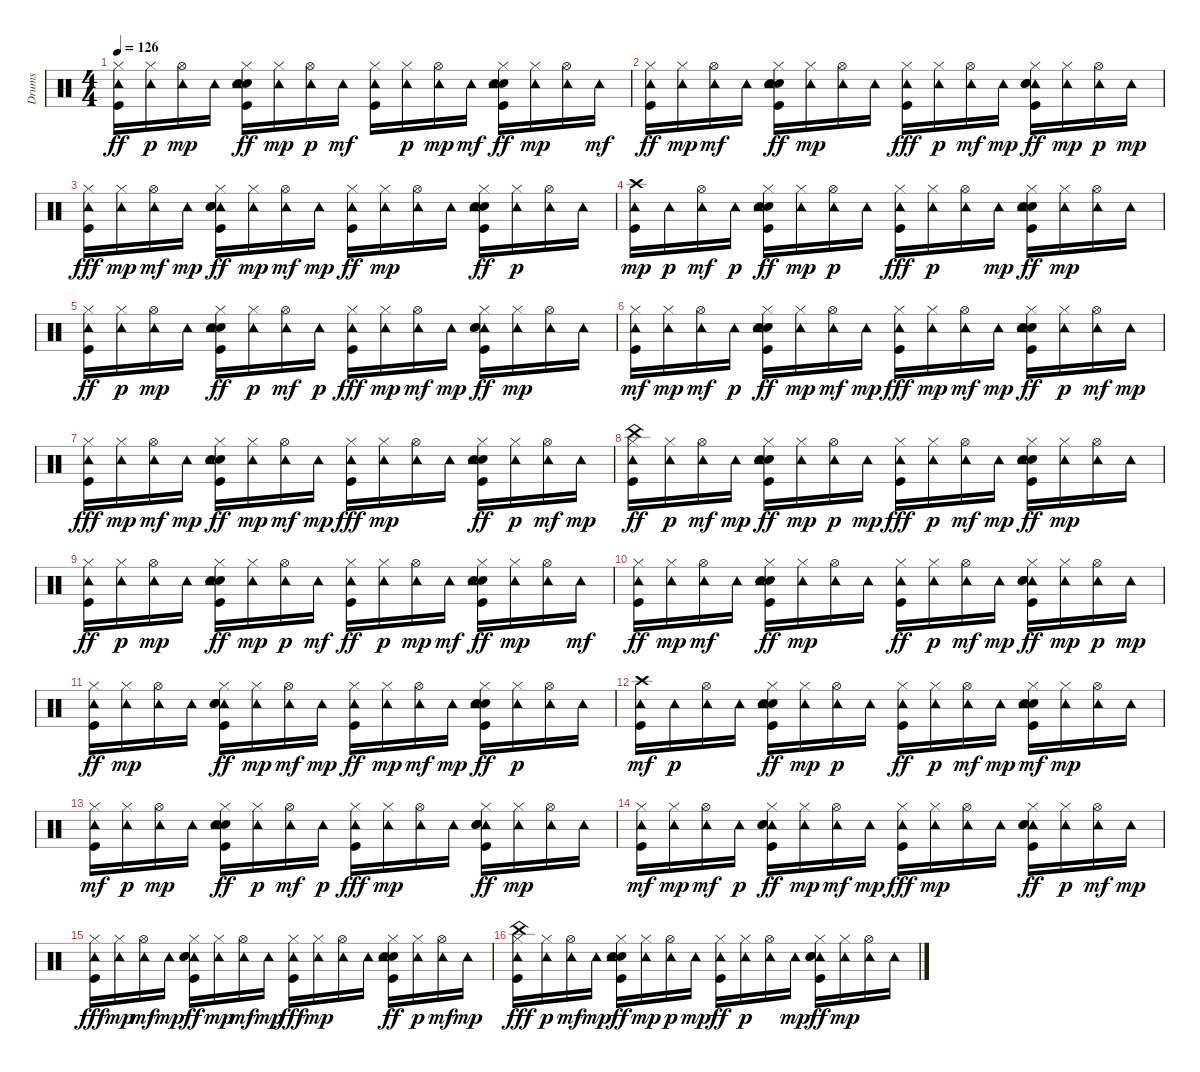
\track ("Drums" "Drums") {instrument percussion}
\staff {score}
\articulation defaults
\ts (4 4)
\tempo 126
\clef neutral
\ks c
("Kick (hit)" "Tambourine (hit)" "Hi-Hat (closed)").16{dy ff} ("Hi-Hat (closed)" "Tambourine (hit)").16{dy p} ("Hi-Hat (open)" "Tambourine (hit)").16{dy mp} "Tambourine (hit)".16 ("Hand Clap (hit)" "Kick (hit)" "Snare (hit) 2" "Tambourine (hit)" "Hi-Hat (closed)").16{dy ff} ("Hi-Hat (closed)" "Tambourine (hit)").16{dy mp} ("Hi-Hat (open)" "Tambourine (hit)").16{dy p} "Tambourine (hit)".16{dy mf} ("Kick (hit)" "Hi-Hat (closed)" "Tambourine (hit)").16 ("Tambourine (hit)" "Hi-Hat (closed)").16{dy p} ("Hi-Hat (open)" "Tambourine (hit)").16{dy mp} "Tambourine (hit)".16{dy mf} ("Kick (hit)" "Snare (hit) 2" "Tambourine (hit)" "Hand Clap (hit)" "Hi-Hat (closed)").16{dy ff} ("Tambourine (hit)" "Hi-Hat (closed)").16{dy mp} ("Hi-Hat (open)" "Tambourine (hit)").16 "Tambourine (hit)".16{dy mf} |
("Kick (hit)" "Tambourine (hit)" "Hi-Hat (closed)").16{dy ff} ("Tambourine (hit)" "Hi-Hat (closed)").16{dy mp} ("Tambourine (hit)" "Hi-Hat (open)").16{dy mf} "Tambourine (hit)".16 ("Hand Clap (hit)" "Tambourine (hit)" "Kick (hit)" "Snare (hit) 2" "Hi-Hat (closed)").16{dy ff} ("Tambourine (hit)" "Hi-Hat (closed)").16{dy mp} ("Hi-Hat (open)" "Tambourine (hit)").16 "Tambourine (hit)".16 ("Tambourine (hit)" "Hi-Hat (closed)" "Kick (hit)").16{dy fff} ("Tambourine (hit)" "Hi-Hat (closed)").16{dy p} ("Tambourine (hit)" "Hi-Hat (open)").16{dy mf} "Tambourine (hit)".16{dy mp} ("Tambourine (hit)" "Hi-Hat (closed)" "Hand Clap (hit)" "Kick (hit)" "Snare (hit) 2").16{dy ff} ("Tambourine (hit)" "Hi-Hat (closed)").16{dy mp} ("Hi-Hat (open)" "Tambourine (hit)").16{dy p} "Tambourine (hit)".16{dy mp} |
("Tambourine (hit)" "Hi-Hat (closed)" "Kick (hit)").16{dy fff} ("Tambourine (hit)" "Hi-Hat (closed)").16{dy mp} ("Tambourine (hit)" "Hi-Hat (open)").16{dy mf} "Tambourine (hit)".16{dy mp} ("Tambourine (hit)" "Hi-Hat (closed)" "Kick (hit)" "Snare (hit) 2" "Hand Clap (hit)").16{dy ff} ("Tambourine (hit)" "Hi-Hat (closed)").16{dy mp} ("Tambourine (hit)" "Hi-Hat (open)").16{dy mf} "Tambourine (hit)".16{dy mp} ("Kick (hit)" "Tambourine (hit)" "Hi-Hat (closed)").16{dy ff} ("Hi-Hat (closed)" "Tambourine (hit)").16{dy mp} ("Hi-Hat (open)" "Tambourine (hit)").16 "Tambourine (hit)".16 ("Snare (hit) 2" "Hand Clap (hit)" "Kick (hit)" "Tambourine (hit)" "Hi-Hat (closed)").16{dy ff} ("Hi-Hat (closed)" "Tambourine (hit)").16{dy p} ("Hi-Hat (open)" "Tambourine (hit)").16 "Tambourine (hit)".16 |
("Tambourine (hit)" "Kick (hit)" "Crash high (hit)").16{dy mp} "Tambourine (hit)".16{dy p} ("Tambourine (hit)" "Hi-Hat (open)").16{dy mf} "Tambourine (hit)".16{dy p} ("Hand Clap (hit)" "Tambourine (hit)" "Kick (hit)" "Snare (hit) 2" "Hi-Hat (closed)").16{dy ff} ("Tambourine (hit)" "Hi-Hat (closed)").16{dy mp} ("Hi-Hat (open)" "Tambourine (hit)").16{dy p} "Tambourine (hit)".16 ("Tambourine (hit)" "Hi-Hat (closed)" "Kick (hit)").16{dy fff} ("Hi-Hat (closed)" "Tambourine (hit)").16{dy p} ("Hi-Hat (open)" "Tambourine (hit)").16 "Tambourine (hit)".16{dy mp} ("Hand Clap (hit)" "Tambourine (hit)" "Kick (hit)" "Snare (hit) 2" "Hi-Hat (closed)").16{dy ff} ("Hi-Hat (closed)" "Tambourine (hit)").16{dy mp} ("Hi-Hat (open)" "Tambourine (hit)").16 "Tambourine (hit)".16 |
("Kick (hit)" "Tambourine (hit)" "Hi-Hat (closed)").16{dy ff} ("Hi-Hat (closed)" "Tambourine (hit)").16{dy p} ("Hi-Hat (open)" "Tambourine (hit)").16{dy mp} "Tambourine (hit)".16 ("Hand Clap (hit)" "Tambourine (hit)" "Kick (hit)" "Snare (hit) 2" "Hi-Hat (closed)").16{dy ff} ("Tambourine (hit)" "Hi-Hat (closed)").16{dy p} ("Tambourine (hit)" "Hi-Hat (open)").16{dy mf} "Tambourine (hit)".16{dy p} ("Tambourine (hit)" "Hi-Hat (closed)" "Kick (hit)").16{dy fff} ("Tambourine (hit)" "Hi-Hat (closed)").16{dy mp} ("Tambourine (hit)" "Hi-Hat (open)").16{dy mf} "Tambourine (hit)".16{dy mp} ("Tambourine (hit)" "Hi-Hat (closed)" "Kick (hit)" "Snare (hit) 2" "Hand Clap (hit)").16{dy ff} ("Tambourine (hit)" "Hi-Hat (closed)").16{dy mp} ("Hi-Hat (open)" "Tambourine (hit)").16 "Tambourine (hit)".16 |
("Hi-Hat (closed)" "Kick (hit)" "Tambourine (hit)").16{dy mf} ("Tambourine (hit)" "Hi-Hat (closed)").16{dy mp} ("Tambourine (hit)" "Hi-Hat (open)").16{dy mf} "Tambourine (hit)".16{dy p} ("Hand Clap (hit)" "Tambourine (hit)" "Hi-Hat (closed)" "Kick (hit)" "Snare (hit) 2").16{dy ff} ("Tambourine (hit)" "Hi-Hat (closed)").16{dy mp} ("Tambourine (hit)" "Hi-Hat (open)").16{dy mf} "Tambourine (hit)".16{dy mp} ("Tambourine (hit)" "Hi-Hat (closed)" "Kick (hit)").16{dy fff} ("Tambourine (hit)" "Hi-Hat (closed)").16{dy mp} ("Tambourine (hit)" "Hi-Hat (open)").16{dy mf} "Tambourine (hit)".16{dy mp} ("Hand Clap (hit)" "Tambourine (hit)" "Hi-Hat (closed)" "Kick (hit)" "Snare (hit) 2").16{dy ff} ("Tambourine (hit)" "Hi-Hat (closed)").16{dy p} ("Tambourine (hit)" "Hi-Hat (open)").16{dy mf} "Tambourine (hit)".16{dy mp} |
("Tambourine (hit)" "Hi-Hat (closed)" "Kick (hit)").16{dy fff} ("Tambourine (hit)" "Hi-Hat (closed)").16{dy mp} ("Tambourine (hit)" "Hi-Hat (open)").16{dy mf} "Tambourine (hit)".16{dy mp} ("Hand Clap (hit)" "Tambourine (hit)" "Hi-Hat (closed)" "Kick (hit)" "Snare (hit) 2").16{dy ff} ("Tambourine (hit)" "Hi-Hat (closed)").16{dy mp} ("Tambourine (hit)" "Hi-Hat (open)").16{dy mf} "Tambourine (hit)".16{dy mp} ("Tambourine (hit)" "Hi-Hat (closed)" "Kick (hit)").16{dy fff} ("Tambourine (hit)" "Hi-Hat (closed)").16{dy mp} ("Hi-Hat (open)" "Tambourine (hit)").16 "Tambourine (hit)".16 ("Hand Clap (hit)" "Kick (hit)" "Snare (hit) 2" "Tambourine (hit)" "Hi-Hat (closed)").16{dy ff} ("Tambourine (hit)" "Hi-Hat (closed)").16{dy p} ("Tambourine (hit)" "Hi-Hat (open)").16{dy mf} "Tambourine (hit)".16{dy mp} |
("Kick (hit)" "China (hit)" "Tambourine (hit)" "Hi-Hat (closed)").16{dy ff} ("Tambourine (hit)" "Hi-Hat (closed)").16{dy p} ("Tambourine (hit)" "Hi-Hat (open)").16{dy mf} "Tambourine (hit)".16{dy mp} ("Hand Clap (hit)" "Kick (hit)" "Snare (hit) 2" "Tambourine (hit)" "Hi-Hat (closed)").16{dy ff} ("Tambourine (hit)" "Hi-Hat (closed)").16{dy mp} ("Hi-Hat (open)" "Tambourine (hit)").16{dy p} "Tambourine (hit)".16{dy mp} ("Tambourine (hit)" "Hi-Hat (closed)" "Kick (hit)").16{dy fff} ("Hi-Hat (closed)" "Tambourine (hit)").16{dy p} ("Tambourine (hit)" "Hi-Hat (open)").16{dy mf} "Tambourine (hit)".16{dy mp} ("Hand Clap (hit)" "Tambourine (hit)" "Kick (hit)" "Snare (hit) 2" "Hi-Hat (closed)").16{dy ff} ("Tambourine (hit)" "Hi-Hat (closed)").16{dy mp} ("Hi-Hat (open)" "Tambourine (hit)").16 "Tambourine (hit)".16 |
("Kick (hit)" "Tambourine (hit)" "Hi-Hat (closed)").16{dy ff} ("Hi-Hat (closed)" "Tambourine (hit)").16{dy p} ("Hi-Hat (open)" "Tambourine (hit)").16{dy mp} "Tambourine (hit)".16 ("Kick (hit)" "Snare (hit) 2" "Hi-Hat (closed)" "Tambourine (hit)" "Hand Clap (hit)").16{dy ff} ("Tambourine (hit)" "Hi-Hat (closed)").16{dy mp} ("Hi-Hat (open)" "Tambourine (hit)").16{dy p} "Tambourine (hit)".16{dy mf} ("Kick (hit)" "Tambourine (hit)" "Hi-Hat (closed)").16{dy ff} ("Tambourine (hit)" "Hi-Hat (closed)").16{dy p} ("Hi-Hat (open)" "Tambourine (hit)").16{dy mp} "Tambourine (hit)".16{dy mf} ("Hand Clap (hit)" "Tambourine (hit)" "Hi-Hat (closed)" "Kick (hit)" "Snare (hit) 2").16{dy ff} ("Tambourine (hit)" "Hi-Hat (closed)").16{dy mp} ("Hi-Hat (open)" "Tambourine (hit)").16 "Tambourine (hit)".16{dy mf} |
("Kick (hit)" "Tambourine (hit)" "Hi-Hat (closed)").16{dy ff} ("Tambourine (hit)" "Hi-Hat (closed)").16{dy mp} ("Tambourine (hit)" "Hi-Hat (open)").16{dy mf} "Tambourine (hit)".16 ("Hand Clap (hit)" "Tambourine (hit)" "Kick (hit)" "Snare (hit) 2" "Hi-Hat (closed)").16{dy ff} ("Tambourine (hit)" "Hi-Hat (closed)").16{dy mp} ("Hi-Hat (open)" "Tambourine (hit)").16 "Tambourine (hit)".16 ("Kick (hit)" "Tambourine (hit)" "Hi-Hat (closed)").16{dy ff} ("Tambourine (hit)" "Hi-Hat (closed)").16{dy p} ("Tambourine (hit)" "Hi-Hat (open)").16{dy mf} "Tambourine (hit)".16{dy mp} ("Tambourine (hit)" "Hi-Hat (closed)" "Kick (hit)" "Snare (hit) 2" "Hand Clap (hit)").16{dy ff} ("Tambourine (hit)" "Hi-Hat (closed)").16{dy mp} ("Hi-Hat (open)" "Tambourine (hit)").16{dy p} "Tambourine (hit)".16{dy mp} |
("Kick (hit)" "Tambourine (hit)" "Hi-Hat (closed)").16{dy ff} ("Tambourine (hit)" "Hi-Hat (closed)").16{dy mp} ("Hi-Hat (open)" "Tambourine (hit)").16 "Tambourine (hit)".16 ("Hi-Hat (closed)" "Tambourine (hit)" "Kick (hit)" "Snare (hit) 2" "Hand Clap (hit)").16{dy ff} ("Hi-Hat (closed)" "Tambourine (hit)").16{dy mp} ("Tambourine (hit)" "Hi-Hat (open)").16{dy mf} "Tambourine (hit)".16{dy mp} ("Kick (hit)" "Tambourine (hit)" "Hi-Hat (closed)").16{dy ff} ("Tambourine (hit)" "Hi-Hat (closed)").16{dy mp} ("Tambourine (hit)" "Hi-Hat (open)").16{dy mf} "Tambourine (hit)".16{dy mp} ("Snare (hit) 2" "Kick (hit)" "Hand Clap (hit)" "Tambourine (hit)" "Hi-Hat (closed)").16{dy ff} ("Hi-Hat (closed)" "Tambourine (hit)").16{dy p} ("Hi-Hat (open)" "Tambourine (hit)").16 "Tambourine (hit)".16 |
("Kick (hit)" "Crash high (hit)" "Tambourine (hit)").16{dy mf} "Tambourine (hit)".16{dy p} ("Hi-Hat (open)" "Tambourine (hit)").16 "Tambourine (hit)".16 ("Kick (hit)" "Snare (hit) 2" "Hand Clap (hit)" "Tambourine (hit)" "Hi-Hat (closed)").16{dy ff} ("Tambourine (hit)" "Hi-Hat (closed)").16{dy mp} ("Hi-Hat (open)" "Tambourine (hit)").16{dy p} "Tambourine (hit)".16 ("Kick (hit)" "Tambourine (hit)" "Hi-Hat (closed)").16{dy ff} ("Tambourine (hit)" "Hi-Hat (closed)").16{dy p} ("Tambourine (hit)" "Hi-Hat (open)").16{dy mf} "Tambourine (hit)".16{dy mp} ("Hand Clap (hit)" "Kick (hit)" "Snare (hit) 2" "Tambourine (hit)" "Hi-Hat (closed)").16{dy mf} ("Tambourine (hit)" "Hi-Hat (closed)").16{dy mp} ("Hi-Hat (open)" "Tambourine (hit)").16 "Tambourine (hit)".16 |
("Hi-Hat (closed)" "Kick (hit)" "Tambourine (hit)").16{dy mf} ("Hi-Hat (closed)" "Tambourine (hit)").16{dy p} ("Hi-Hat (open)" "Tambourine (hit)").16{dy mp} "Tambourine (hit)".16 ("Kick (hit)" "Snare (hit) 2" "Tambourine (hit)" "Hand Clap (hit)" "Hi-Hat (closed)").16{dy ff} ("Tambourine (hit)" "Hi-Hat (closed)").16{dy p} ("Tambourine (hit)" "Hi-Hat (open)").16{dy mf} "Tambourine (hit)".16{dy p} ("Tambourine (hit)" "Hi-Hat (closed)" "Kick (hit)").16{dy fff} ("Tambourine (hit)" "Hi-Hat (closed)").16{dy mp} ("Hi-Hat (open)" "Tambourine (hit)").16 "Tambourine (hit)".16 ("Tambourine (hit)" "Hand Clap (hit)" "Hi-Hat (closed)" "Kick (hit)" "Snare (hit) 2").16{dy ff} ("Tambourine (hit)" "Hi-Hat (closed)").16{dy mp} ("Hi-Hat (open)" "Tambourine (hit)").16 "Tambourine (hit)".16 |
("Hi-Hat (closed)" "Kick (hit)" "Tambourine (hit)").16{dy mf} ("Tambourine (hit)" "Hi-Hat (closed)").16{dy mp} ("Tambourine (hit)" "Hi-Hat (open)").16{dy mf} "Tambourine (hit)".16{dy p} ("Tambourine (hit)" "Hand Clap (hit)" "Kick (hit)" "Snare (hit) 2" "Hi-Hat (closed)").16{dy ff} ("Tambourine (hit)" "Hi-Hat (closed)").16{dy mp} ("Tambourine (hit)" "Hi-Hat (open)").16{dy mf} "Tambourine (hit)".16{dy mp} ("Tambourine (hit)" "Hi-Hat (closed)" "Kick (hit)").16{dy fff} ("Hi-Hat (closed)" "Tambourine (hit)").16{dy mp} ("Hi-Hat (open)" "Tambourine (hit)").16 "Tambourine (hit)".16 ("Hi-Hat (closed)" "Tambourine (hit)" "Kick (hit)" "Snare (hit) 2" "Hand Clap (hit)").16{dy ff} ("Tambourine (hit)" "Hi-Hat (closed)").16{dy p} ("Tambourine (hit)" "Hi-Hat (open)").16{dy mf} "Tambourine (hit)".16{dy mp} |
("Tambourine (hit)" "Hi-Hat (closed)" "Kick (hit)").16{dy fff} ("Tambourine (hit)" "Hi-Hat (closed)").16{dy mp} ("Tambourine (hit)" "Hi-Hat (open)").16{dy mf} "Tambourine (hit)".16{dy mp} ("Tambourine (hit)" "Hi-Hat (closed)" "Hand Clap (hit)" "Kick (hit)" "Snare (hit) 2").16{dy ff} ("Tambourine (hit)" "Hi-Hat (closed)").16{dy mp} ("Tambourine (hit)" "Hi-Hat (open)").16{dy mf} "Tambourine (hit)".16{dy mp} ("Tambourine (hit)" "Hi-Hat (closed)" "Kick (hit)").16{dy fff} ("Hi-Hat (closed)" "Tambourine (hit)").16{dy mp} ("Hi-Hat (open)" "Tambourine (hit)").16 "Tambourine (hit)".16 ("Hand Clap (hit)" "Tambourine (hit)" "Hi-Hat (closed)" "Kick (hit)" "Snare (hit) 2").16{dy ff} ("Tambourine (hit)" "Hi-Hat (closed)").16{dy p} ("Tambourine (hit)" "Hi-Hat (open)").16{dy mf} "Tambourine (hit)".16{dy mp} |
("China (hit)" "Tambourine (hit)" "Hi-Hat (closed)" "Kick (hit)").16{dy fff} ("Tambourine (hit)" "Hi-Hat (closed)").16{dy p} ("Tambourine (hit)" "Hi-Hat (open)").16{dy mf} "Tambourine (hit)".16{dy mp} ("Hand Clap (hit)" "Kick (hit)" "Snare (hit) 2" "Tambourine (hit)" "Hi-Hat (closed)").16{dy ff} ("Tambourine (hit)" "Hi-Hat (closed)").16{dy mp} ("Hi-Hat (open)" "Tambourine (hit)").16{dy p} "Tambourine (hit)".16{dy mp} ("Tambourine (hit)" "Kick (hit)" "Hi-Hat (closed)").16{dy ff} ("Tambourine (hit)" "Hi-Hat (closed)").16{dy p} ("Hi-Hat (open)" "Tambourine (hit)").16 "Tambourine (hit)".16{dy mp} ("Tambourine (hit)" "Hi-Hat (closed)" "Kick (hit)" "Snare (hit) 2" "Hand Clap (hit)").16{dy ff} ("Tambourine (hit)" "Hi-Hat (closed)").16{dy mp} ("Hi-Hat (open)" "Tambourine (hit)").16 "Tambourine (hit)".16
